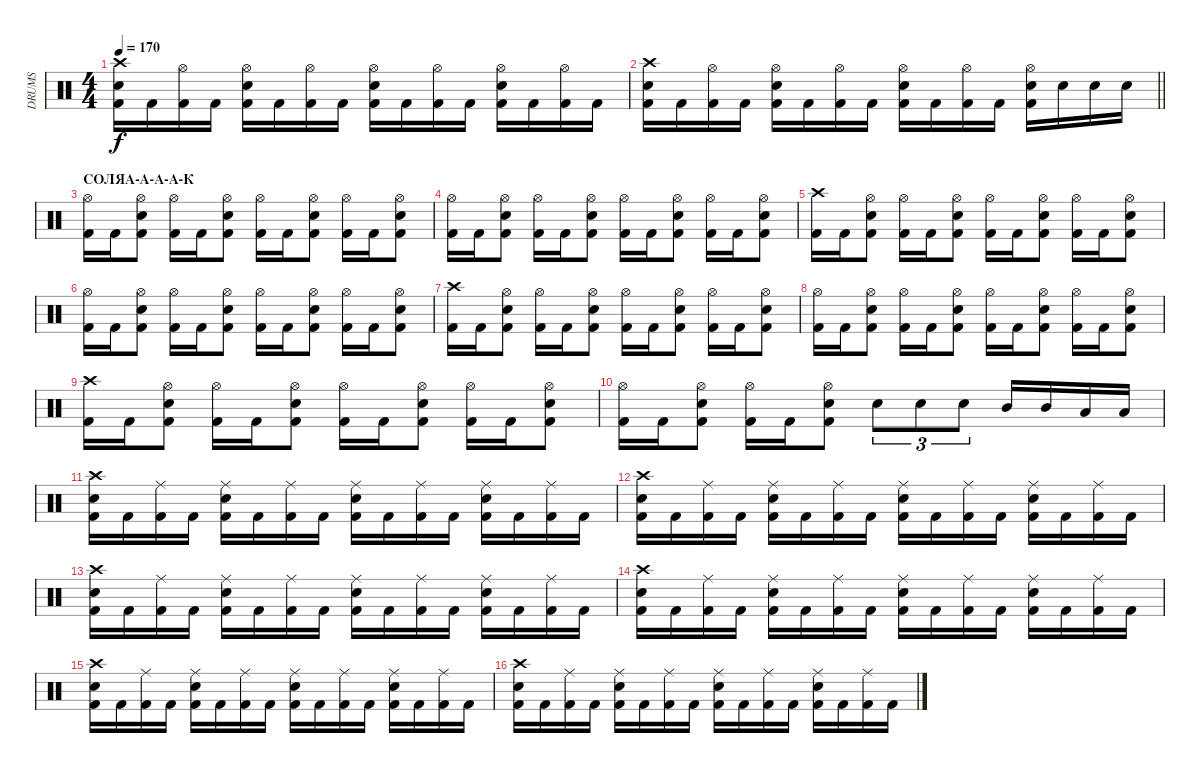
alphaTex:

\track ("DRUMS" "DRUMS") {instrument percussion}
\staff {score}
\articulation defaults
\ts (4 4)
\tempo 170
\clef neutral
\ks c
("Kick (hit) 2" "Snare (hit) 2" "Crash high (hit)").16{dy f} "Kick (hit) 2".16 ("Kick (hit) 2" "Hi-Hat (open)").16 "Kick (hit) 2".16 ("Kick (hit) 2" "Snare (hit) 2" "Hi-Hat (open)").16 "Kick (hit) 2".16 ("Kick (hit) 2" "Hi-Hat (open)").16 "Kick (hit) 2".16 ("Kick (hit) 2" "Snare (hit) 2" "Hi-Hat (open)").16 "Kick (hit) 2".16 ("Kick (hit) 2" "Hi-Hat (open)").16 "Kick (hit) 2".16 ("Kick (hit) 2" "Snare (hit) 2" "Hi-Hat (open)").16 "Kick (hit) 2".16 ("Kick (hit) 2" "Hi-Hat (open)").16 "Kick (hit) 2".16 |
\barLineRight lightlight
("Kick (hit) 2" "Snare (hit) 2" "Crash high (hit)").16 "Kick (hit) 2".16 ("Kick (hit) 2" "Hi-Hat (open)").16 "Kick (hit) 2".16 ("Kick (hit) 2" "Snare (hit) 2" "Hi-Hat (open)").16 "Kick (hit) 2".16 ("Kick (hit) 2" "Hi-Hat (open)").16 "Kick (hit) 2".16 ("Kick (hit) 2" "Snare (hit) 2" "Hi-Hat (open)").16 "Kick (hit) 2".16 ("Kick (hit) 2" "Hi-Hat (open)").16 "Kick (hit) 2".16 ("Kick (hit) 2" "Snare (hit) 2" "Hi-Hat (open)").16 "Snare (hit) 2".16 "Snare (hit) 2".16 "Snare (hit) 2".16 |
\section ("" "СОЛЯА-А-А-А-К")
("Hi-Hat (open)" "Kick (hit) 2").16 "Kick (hit) 2".16 ("Hi-Hat (open)" "Snare (hit) 2" "Kick (hit) 2").8 ("Hi-Hat (open)" "Kick (hit) 2").16 "Kick (hit) 2".16 ("Hi-Hat (open)" "Snare (hit) 2" "Kick (hit) 2").8 ("Hi-Hat (open)" "Kick (hit) 2").16 "Kick (hit) 2".16 ("Hi-Hat (open)" "Snare (hit) 2" "Kick (hit) 2").8 ("Hi-Hat (open)" "Kick (hit) 2").16 "Kick (hit) 2".16 ("Hi-Hat (open)" "Snare (hit) 2" "Kick (hit) 2").8 |
("Hi-Hat (open)" "Kick (hit) 2").16 "Kick (hit) 2".16 ("Hi-Hat (open)" "Snare (hit) 2" "Kick (hit) 2").8 ("Hi-Hat (open)" "Kick (hit) 2").16 "Kick (hit) 2".16 ("Hi-Hat (open)" "Snare (hit) 2" "Kick (hit) 2").8 ("Hi-Hat (open)" "Kick (hit) 2").16 "Kick (hit) 2".16 ("Hi-Hat (open)" "Snare (hit) 2" "Kick (hit) 2").8 ("Hi-Hat (open)" "Kick (hit) 2").16 "Kick (hit) 2".16 ("Hi-Hat (open)" "Snare (hit) 2" "Kick (hit) 2").8 |
("Crash high (hit)" "Kick (hit) 2").16 "Kick (hit) 2".16 ("Hi-Hat (open)" "Snare (hit) 2" "Kick (hit) 2").8 ("Hi-Hat (open)" "Kick (hit) 2").16 "Kick (hit) 2".16 ("Hi-Hat (open)" "Snare (hit) 2" "Kick (hit) 2").8 ("Hi-Hat (open)" "Kick (hit) 2").16 "Kick (hit) 2".16 ("Hi-Hat (open)" "Snare (hit) 2" "Kick (hit) 2").8 ("Hi-Hat (open)" "Kick (hit) 2").16 "Kick (hit) 2".16 ("Hi-Hat (open)" "Snare (hit) 2" "Kick (hit) 2").8 |
("Hi-Hat (open)" "Kick (hit) 2").16 "Kick (hit) 2".16 ("Hi-Hat (open)" "Snare (hit) 2" "Kick (hit) 2").8 ("Hi-Hat (open)" "Kick (hit) 2").16 "Kick (hit) 2".16 ("Hi-Hat (open)" "Snare (hit) 2" "Kick (hit) 2").8 ("Hi-Hat (open)" "Kick (hit) 2").16 "Kick (hit) 2".16 ("Hi-Hat (open)" "Snare (hit) 2" "Kick (hit) 2").8 ("Hi-Hat (open)" "Kick (hit) 2").16 "Kick (hit) 2".16 ("Hi-Hat (open)" "Snare (hit) 2" "Kick (hit) 2").8 |
("Crash high (hit)" "Kick (hit) 2").16 "Kick (hit) 2".16 ("Hi-Hat (open)" "Snare (hit) 2" "Kick (hit) 2").8 ("Hi-Hat (open)" "Kick (hit) 2").16 "Kick (hit) 2".16 ("Hi-Hat (open)" "Snare (hit) 2" "Kick (hit) 2").8 ("Hi-Hat (open)" "Kick (hit) 2").16 "Kick (hit) 2".16 ("Hi-Hat (open)" "Snare (hit) 2" "Kick (hit) 2").8 ("Hi-Hat (open)" "Kick (hit) 2").16 "Kick (hit) 2".16 ("Hi-Hat (open)" "Snare (hit) 2" "Kick (hit) 2").8 |
("Hi-Hat (open)" "Kick (hit) 2").16 "Kick (hit) 2".16 ("Hi-Hat (open)" "Snare (hit) 2" "Kick (hit) 2").8 ("Hi-Hat (open)" "Kick (hit) 2").16 "Kick (hit) 2".16 ("Hi-Hat (open)" "Snare (hit) 2" "Kick (hit) 2").8 ("Hi-Hat (open)" "Kick (hit) 2").16 "Kick (hit) 2".16 ("Hi-Hat (open)" "Snare (hit) 2" "Kick (hit) 2").8 ("Hi-Hat (open)" "Kick (hit) 2").16 "Kick (hit) 2".16 ("Hi-Hat (open)" "Snare (hit) 2" "Kick (hit) 2").8 |
("Crash high (hit)" "Kick (hit) 2").16 "Kick (hit) 2".16 ("Hi-Hat (open)" "Snare (hit) 2" "Kick (hit) 2").8 ("Hi-Hat (open)" "Kick (hit) 2").16 "Kick (hit) 2".16 ("Hi-Hat (open)" "Snare (hit) 2" "Kick (hit) 2").8 ("Hi-Hat (open)" "Kick (hit) 2").16 "Kick (hit) 2".16 ("Hi-Hat (open)" "Snare (hit) 2" "Kick (hit) 2").8 ("Hi-Hat (open)" "Kick (hit) 2").16 "Kick (hit) 2".16 ("Hi-Hat (open)" "Snare (hit) 2" "Kick (hit) 2").8 |
("Hi-Hat (open)" "Kick (hit) 2").16 "Kick (hit) 2".16 ("Hi-Hat (open)" "Snare (hit) 2" "Kick (hit) 2").8 ("Hi-Hat (open)" "Kick (hit) 2").16 "Kick (hit) 2".16 ("Hi-Hat (open)" "Snare (hit) 2" "Kick (hit) 2").8 "Snare (hit) 2".8{tu (3 2)} "Snare (hit) 2".8{tu (3 2)} "Snare (hit) 2".8{tu (3 2)} "Mid Tom (hit)".16 "Mid Tom (hit)".16 "Low Tom (hit)".16 "Low Tom (hit)".16 |
("Kick (hit) 2" "Snare (hit) 2" "Crash high (hit)").16 "Kick (hit) 2".16 ("Kick (hit) 2" "Ride (middle)").16 "Kick (hit) 2".16 ("Kick (hit) 2" "Snare (hit) 2" "Ride (middle)").16 "Kick (hit) 2".16 ("Kick (hit) 2" "Ride (middle)").16 "Kick (hit) 2".16 ("Kick (hit) 2" "Snare (hit) 2" "Ride (middle)").16 "Kick (hit) 2".16 ("Kick (hit) 2" "Ride (middle)").16 "Kick (hit) 2".16 ("Kick (hit) 2" "Snare (hit) 2" "Ride (middle)").16 "Kick (hit) 2".16 ("Kick (hit) 2" "Ride (middle)").16 "Kick (hit) 2".16 |
("Kick (hit) 2" "Snare (hit) 2" "Crash high (hit)").16 "Kick (hit) 2".16 ("Kick (hit) 2" "Ride (middle)").16 "Kick (hit) 2".16 ("Kick (hit) 2" "Snare (hit) 2" "Ride (middle)").16 "Kick (hit) 2".16 ("Kick (hit) 2" "Ride (middle)").16 "Kick (hit) 2".16 ("Kick (hit) 2" "Snare (hit) 2" "Ride (middle)").16 "Kick (hit) 2".16 ("Kick (hit) 2" "Ride (middle)").16 "Kick (hit) 2".16 ("Kick (hit) 2" "Snare (hit) 2" "Ride (middle)").16 "Kick (hit) 2".16 ("Kick (hit) 2" "Ride (middle)").16 "Kick (hit) 2".16 |
("Kick (hit) 2" "Snare (hit) 2" "Crash high (hit)").16 "Kick (hit) 2".16 ("Kick (hit) 2" "Ride (middle)").16 "Kick (hit) 2".16 ("Kick (hit) 2" "Snare (hit) 2" "Ride (middle)").16 "Kick (hit) 2".16 ("Kick (hit) 2" "Ride (middle)").16 "Kick (hit) 2".16 ("Kick (hit) 2" "Snare (hit) 2" "Ride (middle)").16 "Kick (hit) 2".16 ("Kick (hit) 2" "Ride (middle)").16 "Kick (hit) 2".16 ("Kick (hit) 2" "Snare (hit) 2" "Ride (middle)").16 "Kick (hit) 2".16 ("Kick (hit) 2" "Ride (middle)").16 "Kick (hit) 2".16 |
("Kick (hit) 2" "Snare (hit) 2" "Crash high (hit)").16 "Kick (hit) 2".16 ("Kick (hit) 2" "Ride (middle)").16 "Kick (hit) 2".16 ("Kick (hit) 2" "Snare (hit) 2" "Ride (middle)").16 "Kick (hit) 2".16 ("Kick (hit) 2" "Ride (middle)").16 "Kick (hit) 2".16 ("Kick (hit) 2" "Snare (hit) 2" "Ride (middle)").16 "Kick (hit) 2".16 ("Kick (hit) 2" "Ride (middle)").16 "Kick (hit) 2".16 ("Kick (hit) 2" "Snare (hit) 2" "Ride (middle)").16 "Kick (hit) 2".16 ("Kick (hit) 2" "Ride (middle)").16 "Kick (hit) 2".16 |
("Kick (hit) 2" "Snare (hit) 2" "Crash high (hit)").16 "Kick (hit) 2".16 ("Kick (hit) 2" "Ride (middle)").16 "Kick (hit) 2".16 ("Kick (hit) 2" "Snare (hit) 2" "Ride (middle)").16 "Kick (hit) 2".16 ("Kick (hit) 2" "Ride (middle)").16 "Kick (hit) 2".16 ("Kick (hit) 2" "Snare (hit) 2" "Ride (middle)").16 "Kick (hit) 2".16 ("Kick (hit) 2" "Ride (middle)").16 "Kick (hit) 2".16 ("Kick (hit) 2" "Snare (hit) 2" "Ride (middle)").16 "Kick (hit) 2".16 ("Kick (hit) 2" "Ride (middle)").16 "Kick (hit) 2".16 |
("Kick (hit) 2" "Snare (hit) 2" "Crash high (hit)").16 "Kick (hit) 2".16 ("Kick (hit) 2" "Ride (middle)").16 "Kick (hit) 2".16 ("Kick (hit) 2" "Snare (hit) 2" "Ride (middle)").16 "Kick (hit) 2".16 ("Kick (hit) 2" "Ride (middle)").16 "Kick (hit) 2".16 ("Kick (hit) 2" "Snare (hit) 2" "Ride (middle)").16 "Kick (hit) 2".16 ("Kick (hit) 2" "Ride (middle)").16 "Kick (hit) 2".16 ("Kick (hit) 2" "Snare (hit) 2" "Ride (middle)").16 "Kick (hit) 2".16 ("Kick (hit) 2" "Ride (middle)").16 "Kick (hit) 2".16
